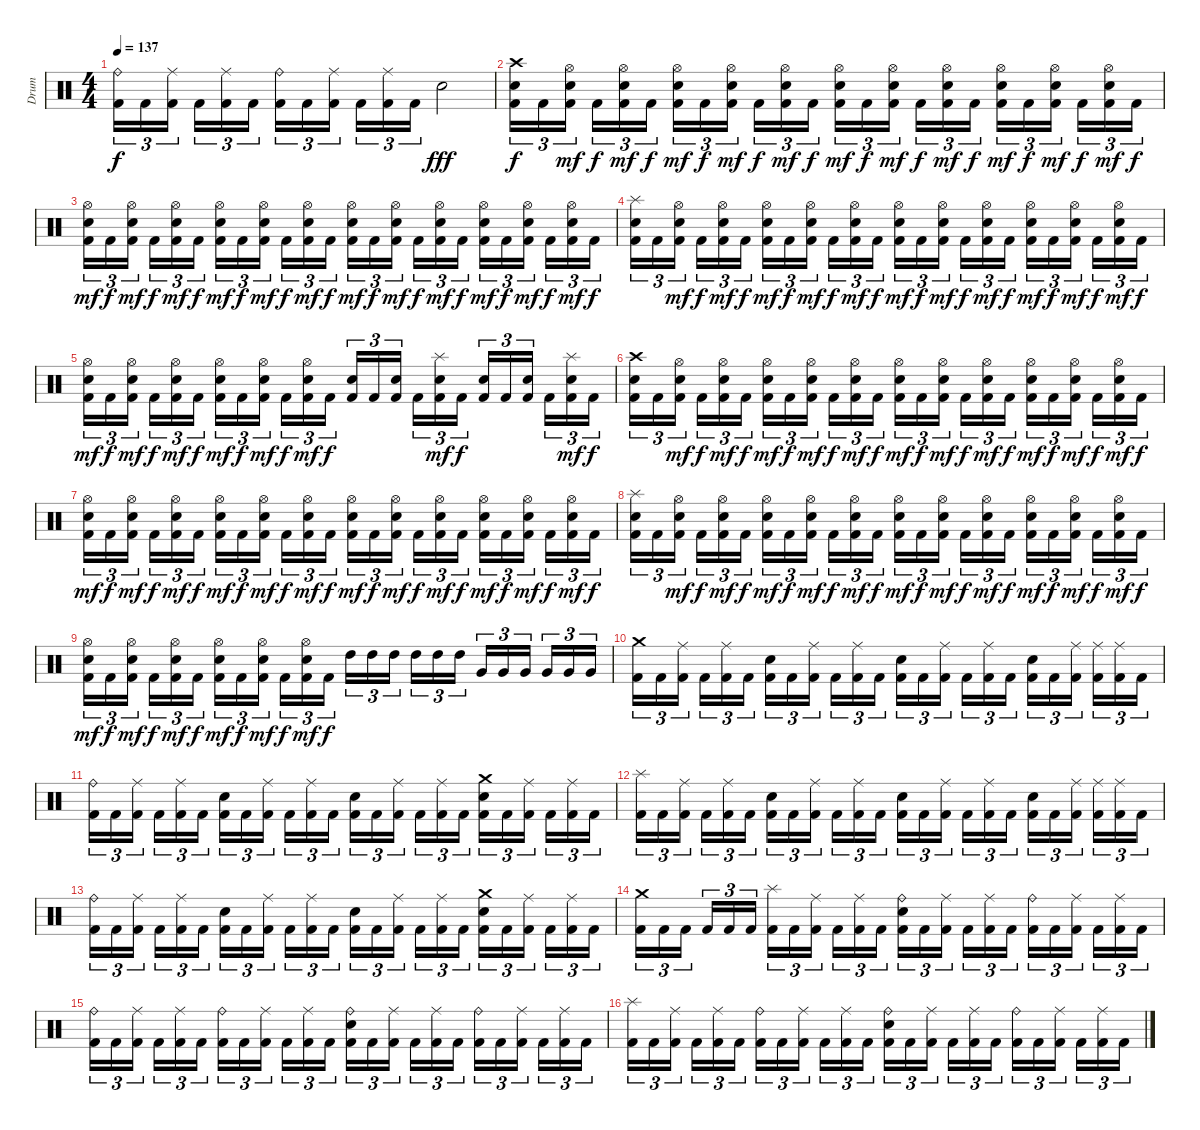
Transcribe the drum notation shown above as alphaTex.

\track ("Drum" "Drum") {instrument percussion}
\staff {score}
\articulation defaults
\ts (4 4)
\tempo 137
\clef neutral
\ks c
("Ride (bell)" "Kick (hit) 2").16{tu (3 2) dy f} "Kick (hit) 2".16{tu (3 2)} ("Ride (middle)" "Kick (hit) 2").16{tu (3 2) beam splitsecondary} "Kick (hit) 2".16{tu (3 2)} ("Ride (middle)" "Kick (hit) 2").16{tu (3 2)} "Kick (hit) 2".16{tu (3 2)} ("Ride (bell)" "Kick (hit) 2").16{tu (3 2)} "Kick (hit) 2".16{tu (3 2)} ("Ride (middle)" "Kick (hit) 2").16{tu (3 2) beam splitsecondary} "Kick (hit) 2".16{tu (3 2)} ("Ride (middle)" "Kick (hit) 2").16{tu (3 2)} "Kick (hit) 2".16{tu (3 2)} "Electric Snare (hit)".2{dy fff} |
("Crash high (hit)" "Electric Snare (hit)" "Kick (hit) 2").16{tu (3 2) dy f} "Kick (hit) 2".16{tu (3 2)} ("Hi-Hat (open)" "Electric Snare (hit)" "Kick (hit) 2").16{tu (3 2) dy mf beam splitsecondary} "Kick (hit) 2".16{tu (3 2) dy f} ("Hi-Hat (open)" "Electric Snare (hit)" "Kick (hit) 2").16{tu (3 2) dy mf} "Kick (hit) 2".16{tu (3 2) dy f} ("Hi-Hat (open)" "Electric Snare (hit)" "Kick (hit) 2").16{tu (3 2) dy mf} "Kick (hit) 2".16{tu (3 2) dy f} ("Hi-Hat (open)" "Electric Snare (hit)" "Kick (hit) 2").16{tu (3 2) dy mf beam splitsecondary} "Kick (hit) 2".16{tu (3 2) dy f} ("Hi-Hat (open)" "Electric Snare (hit)" "Kick (hit) 2").16{tu (3 2) dy mf} "Kick (hit) 2".16{tu (3 2) dy f} ("Hi-Hat (open)" "Electric Snare (hit)" "Kick (hit) 2").16{tu (3 2) dy mf} "Kick (hit) 2".16{tu (3 2) dy f} ("Hi-Hat (open)" "Electric Snare (hit)" "Kick (hit) 2").16{tu (3 2) dy mf beam splitsecondary} "Kick (hit) 2".16{tu (3 2) dy f} ("Hi-Hat (open)" "Electric Snare (hit)" "Kick (hit) 2").16{tu (3 2) dy mf} "Kick (hit) 2".16{tu (3 2) dy f} ("Hi-Hat (open)" "Electric Snare (hit)" "Kick (hit) 2").16{tu (3 2) dy mf} "Kick (hit) 2".16{tu (3 2) dy f} ("Hi-Hat (open)" "Electric Snare (hit)" "Kick (hit) 2").16{tu (3 2) dy mf beam splitsecondary} "Kick (hit) 2".16{tu (3 2) dy f} ("Hi-Hat (open)" "Electric Snare (hit)" "Kick (hit) 2").16{tu (3 2) dy mf} "Kick (hit) 2".16{tu (3 2) dy f} |
("Hi-Hat (open)" "Electric Snare (hit)" "Kick (hit) 2").16{tu (3 2) dy mf} "Kick (hit) 2".16{tu (3 2) dy f} ("Hi-Hat (open)" "Electric Snare (hit)" "Kick (hit) 2").16{tu (3 2) dy mf beam splitsecondary} "Kick (hit) 2".16{tu (3 2) dy f} ("Hi-Hat (open)" "Electric Snare (hit)" "Kick (hit) 2").16{tu (3 2) dy mf} "Kick (hit) 2".16{tu (3 2) dy f} ("Hi-Hat (open)" "Electric Snare (hit)" "Kick (hit) 2").16{tu (3 2) dy mf} "Kick (hit) 2".16{tu (3 2) dy f} ("Hi-Hat (open)" "Electric Snare (hit)" "Kick (hit) 2").16{tu (3 2) dy mf beam splitsecondary} "Kick (hit) 2".16{tu (3 2) dy f} ("Hi-Hat (open)" "Electric Snare (hit)" "Kick (hit) 2").16{tu (3 2) dy mf} "Kick (hit) 2".16{tu (3 2) dy f} ("Hi-Hat (open)" "Electric Snare (hit)" "Kick (hit) 2").16{tu (3 2) dy mf} "Kick (hit) 2".16{tu (3 2) dy f} ("Hi-Hat (open)" "Electric Snare (hit)" "Kick (hit) 2").16{tu (3 2) dy mf beam splitsecondary} "Kick (hit) 2".16{tu (3 2) dy f} ("Hi-Hat (open)" "Electric Snare (hit)" "Kick (hit) 2").16{tu (3 2) dy mf} "Kick (hit) 2".16{tu (3 2) dy f} ("Hi-Hat (open)" "Electric Snare (hit)" "Kick (hit) 2").16{tu (3 2) dy mf} "Kick (hit) 2".16{tu (3 2) dy f} ("Hi-Hat (open)" "Electric Snare (hit)" "Kick (hit) 2").16{tu (3 2) dy mf beam splitsecondary} "Kick (hit) 2".16{tu (3 2) dy f} ("Hi-Hat (open)" "Electric Snare (hit)" "Kick (hit) 2").16{tu (3 2) dy mf} "Kick (hit) 2".16{tu (3 2) dy f} |
("Splash (hit)" "Electric Snare (hit)" "Kick (hit) 2").16{tu (3 2)} "Kick (hit) 2".16{tu (3 2)} ("Hi-Hat (open)" "Electric Snare (hit)" "Kick (hit) 2").16{tu (3 2) dy mf beam splitsecondary} "Kick (hit) 2".16{tu (3 2) dy f} ("Hi-Hat (open)" "Electric Snare (hit)" "Kick (hit) 2").16{tu (3 2) dy mf} "Kick (hit) 2".16{tu (3 2) dy f} ("Hi-Hat (open)" "Electric Snare (hit)" "Kick (hit) 2").16{tu (3 2) dy mf} "Kick (hit) 2".16{tu (3 2) dy f} ("Hi-Hat (open)" "Electric Snare (hit)" "Kick (hit) 2").16{tu (3 2) dy mf beam splitsecondary} "Kick (hit) 2".16{tu (3 2) dy f} ("Hi-Hat (open)" "Electric Snare (hit)" "Kick (hit) 2").16{tu (3 2) dy mf} "Kick (hit) 2".16{tu (3 2) dy f} ("Hi-Hat (open)" "Electric Snare (hit)" "Kick (hit) 2").16{tu (3 2) dy mf} "Kick (hit) 2".16{tu (3 2) dy f} ("Hi-Hat (open)" "Electric Snare (hit)" "Kick (hit) 2").16{tu (3 2) dy mf beam splitsecondary} "Kick (hit) 2".16{tu (3 2) dy f} ("Hi-Hat (open)" "Electric Snare (hit)" "Kick (hit) 2").16{tu (3 2) dy mf} "Kick (hit) 2".16{tu (3 2) dy f} ("Hi-Hat (open)" "Electric Snare (hit)" "Kick (hit) 2").16{tu (3 2) dy mf} "Kick (hit) 2".16{tu (3 2) dy f} ("Hi-Hat (open)" "Electric Snare (hit)" "Kick (hit) 2").16{tu (3 2) dy mf beam splitsecondary} "Kick (hit) 2".16{tu (3 2) dy f} ("Hi-Hat (open)" "Electric Snare (hit)" "Kick (hit) 2").16{tu (3 2) dy mf} "Kick (hit) 2".16{tu (3 2) dy f} |
("Hi-Hat (open)" "Electric Snare (hit)" "Kick (hit) 2").16{tu (3 2) dy mf} "Kick (hit) 2".16{tu (3 2) dy f} ("Hi-Hat (open)" "Electric Snare (hit)" "Kick (hit) 2").16{tu (3 2) dy mf beam splitsecondary} "Kick (hit) 2".16{tu (3 2) dy f} ("Hi-Hat (open)" "Electric Snare (hit)" "Kick (hit) 2").16{tu (3 2) dy mf} "Kick (hit) 2".16{tu (3 2) dy f} ("Hi-Hat (open)" "Electric Snare (hit)" "Kick (hit) 2").16{tu (3 2) dy mf} "Kick (hit) 2".16{tu (3 2) dy f} ("Hi-Hat (open)" "Electric Snare (hit)" "Kick (hit) 2").16{tu (3 2) dy mf beam splitsecondary} "Kick (hit) 2".16{tu (3 2) dy f} ("Hi-Hat (open)" "Electric Snare (hit)" "Kick (hit) 2").16{tu (3 2) dy mf} "Kick (hit) 2".16{tu (3 2) dy f} ("Electric Snare (hit)" "Kick (hit) 2").16{tu (3 2)} "Kick (hit) 2".16{tu (3 2)} ("Electric Snare (hit)" "Kick (hit) 2").16{tu (3 2) beam splitsecondary} "Kick (hit) 2".16{tu (3 2)} ("Splash (hit)" "Electric Snare (hit)" "Kick (hit) 2").16{tu (3 2) dy mf} "Kick (hit) 2".16{tu (3 2) dy f} ("Electric Snare (hit)" "Kick (hit) 2").16{tu (3 2)} "Kick (hit) 2".16{tu (3 2)} ("Electric Snare (hit)" "Kick (hit) 2").16{tu (3 2) beam splitsecondary} "Kick (hit) 2".16{tu (3 2)} ("Splash (hit)" "Electric Snare (hit)" "Kick (hit) 2").16{tu (3 2) dy mf} "Kick (hit) 2".16{tu (3 2) dy f} |
("Crash high (hit)" "Electric Snare (hit)" "Kick (hit) 2").16{tu (3 2)} "Kick (hit) 2".16{tu (3 2)} ("Hi-Hat (open)" "Electric Snare (hit)" "Kick (hit) 2").16{tu (3 2) dy mf beam splitsecondary} "Kick (hit) 2".16{tu (3 2) dy f} ("Hi-Hat (open)" "Electric Snare (hit)" "Kick (hit) 2").16{tu (3 2) dy mf} "Kick (hit) 2".16{tu (3 2) dy f} ("Hi-Hat (open)" "Electric Snare (hit)" "Kick (hit) 2").16{tu (3 2) dy mf} "Kick (hit) 2".16{tu (3 2) dy f} ("Hi-Hat (open)" "Electric Snare (hit)" "Kick (hit) 2").16{tu (3 2) dy mf beam splitsecondary} "Kick (hit) 2".16{tu (3 2) dy f} ("Hi-Hat (open)" "Electric Snare (hit)" "Kick (hit) 2").16{tu (3 2) dy mf} "Kick (hit) 2".16{tu (3 2) dy f} ("Hi-Hat (open)" "Electric Snare (hit)" "Kick (hit) 2").16{tu (3 2) dy mf} "Kick (hit) 2".16{tu (3 2) dy f} ("Hi-Hat (open)" "Electric Snare (hit)" "Kick (hit) 2").16{tu (3 2) dy mf beam splitsecondary} "Kick (hit) 2".16{tu (3 2) dy f} ("Hi-Hat (open)" "Electric Snare (hit)" "Kick (hit) 2").16{tu (3 2) dy mf} "Kick (hit) 2".16{tu (3 2) dy f} ("Hi-Hat (open)" "Electric Snare (hit)" "Kick (hit) 2").16{tu (3 2) dy mf} "Kick (hit) 2".16{tu (3 2) dy f} ("Hi-Hat (open)" "Electric Snare (hit)" "Kick (hit) 2").16{tu (3 2) dy mf beam splitsecondary} "Kick (hit) 2".16{tu (3 2) dy f} ("Hi-Hat (open)" "Electric Snare (hit)" "Kick (hit) 2").16{tu (3 2) dy mf} "Kick (hit) 2".16{tu (3 2) dy f} |
("Hi-Hat (open)" "Electric Snare (hit)" "Kick (hit) 2").16{tu (3 2) dy mf} "Kick (hit) 2".16{tu (3 2) dy f} ("Hi-Hat (open)" "Electric Snare (hit)" "Kick (hit) 2").16{tu (3 2) dy mf beam splitsecondary} "Kick (hit) 2".16{tu (3 2) dy f} ("Hi-Hat (open)" "Electric Snare (hit)" "Kick (hit) 2").16{tu (3 2) dy mf} "Kick (hit) 2".16{tu (3 2) dy f} ("Hi-Hat (open)" "Electric Snare (hit)" "Kick (hit) 2").16{tu (3 2) dy mf} "Kick (hit) 2".16{tu (3 2) dy f} ("Hi-Hat (open)" "Electric Snare (hit)" "Kick (hit) 2").16{tu (3 2) dy mf beam splitsecondary} "Kick (hit) 2".16{tu (3 2) dy f} ("Hi-Hat (open)" "Electric Snare (hit)" "Kick (hit) 2").16{tu (3 2) dy mf} "Kick (hit) 2".16{tu (3 2) dy f} ("Hi-Hat (open)" "Electric Snare (hit)" "Kick (hit) 2").16{tu (3 2) dy mf} "Kick (hit) 2".16{tu (3 2) dy f} ("Hi-Hat (open)" "Electric Snare (hit)" "Kick (hit) 2").16{tu (3 2) dy mf beam splitsecondary} "Kick (hit) 2".16{tu (3 2) dy f} ("Hi-Hat (open)" "Electric Snare (hit)" "Kick (hit) 2").16{tu (3 2) dy mf} "Kick (hit) 2".16{tu (3 2) dy f} ("Hi-Hat (open)" "Electric Snare (hit)" "Kick (hit) 2").16{tu (3 2) dy mf} "Kick (hit) 2".16{tu (3 2) dy f} ("Hi-Hat (open)" "Electric Snare (hit)" "Kick (hit) 2").16{tu (3 2) dy mf beam splitsecondary} "Kick (hit) 2".16{tu (3 2) dy f} ("Hi-Hat (open)" "Electric Snare (hit)" "Kick (hit) 2").16{tu (3 2) dy mf} "Kick (hit) 2".16{tu (3 2) dy f} |
("Splash (hit)" "Electric Snare (hit)" "Kick (hit) 2").16{tu (3 2)} "Kick (hit) 2".16{tu (3 2)} ("Hi-Hat (open)" "Electric Snare (hit)" "Kick (hit) 2").16{tu (3 2) dy mf beam splitsecondary} "Kick (hit) 2".16{tu (3 2) dy f} ("Hi-Hat (open)" "Electric Snare (hit)" "Kick (hit) 2").16{tu (3 2) dy mf} "Kick (hit) 2".16{tu (3 2) dy f} ("Hi-Hat (open)" "Electric Snare (hit)" "Kick (hit) 2").16{tu (3 2) dy mf} "Kick (hit) 2".16{tu (3 2) dy f} ("Hi-Hat (open)" "Electric Snare (hit)" "Kick (hit) 2").16{tu (3 2) dy mf beam splitsecondary} "Kick (hit) 2".16{tu (3 2) dy f} ("Hi-Hat (open)" "Electric Snare (hit)" "Kick (hit) 2").16{tu (3 2) dy mf} "Kick (hit) 2".16{tu (3 2) dy f} ("Hi-Hat (open)" "Electric Snare (hit)" "Kick (hit) 2").16{tu (3 2) dy mf} "Kick (hit) 2".16{tu (3 2) dy f} ("Hi-Hat (open)" "Electric Snare (hit)" "Kick (hit) 2").16{tu (3 2) dy mf beam splitsecondary} "Kick (hit) 2".16{tu (3 2) dy f} ("Hi-Hat (open)" "Electric Snare (hit)" "Kick (hit) 2").16{tu (3 2) dy mf} "Kick (hit) 2".16{tu (3 2) dy f} ("Hi-Hat (open)" "Electric Snare (hit)" "Kick (hit) 2").16{tu (3 2) dy mf} "Kick (hit) 2".16{tu (3 2) dy f} ("Hi-Hat (open)" "Electric Snare (hit)" "Kick (hit) 2").16{tu (3 2) dy mf beam splitsecondary} "Kick (hit) 2".16{tu (3 2) dy f} ("Hi-Hat (open)" "Electric Snare (hit)" "Kick (hit) 2").16{tu (3 2) dy mf} "Kick (hit) 2".16{tu (3 2) dy f} |
("Hi-Hat (open)" "Electric Snare (hit)" "Kick (hit) 2").16{tu (3 2) dy mf} "Kick (hit) 2".16{tu (3 2) dy f} ("Hi-Hat (open)" "Electric Snare (hit)" "Kick (hit) 2").16{tu (3 2) dy mf beam splitsecondary} "Kick (hit) 2".16{tu (3 2) dy f} ("Hi-Hat (open)" "Electric Snare (hit)" "Kick (hit) 2").16{tu (3 2) dy mf} "Kick (hit) 2".16{tu (3 2) dy f} ("Hi-Hat (open)" "Electric Snare (hit)" "Kick (hit) 2").16{tu (3 2) dy mf} "Kick (hit) 2".16{tu (3 2) dy f} ("Hi-Hat (open)" "Electric Snare (hit)" "Kick (hit) 2").16{tu (3 2) dy mf beam splitsecondary} "Kick (hit) 2".16{tu (3 2) dy f} ("Hi-Hat (open)" "Electric Snare (hit)" "Kick (hit) 2").16{tu (3 2) dy mf} "Kick (hit) 2".16{tu (3 2) dy f} "High Tom (hit)".16{tu (3 2)} "High Tom (hit)".16{tu (3 2)} "High Tom (hit)".16{tu (3 2) beam splitsecondary} "High Tom (hit)".16{tu (3 2)} "High Tom (hit)".16{tu (3 2)} "High Tom (hit)".16{tu (3 2)} "Very Low Tom (hit)".16{tu (3 2)} "Very Low Tom (hit)".16{tu (3 2)} "Very Low Tom (hit)".16{tu (3 2) beam splitsecondary} "Very Low Tom (hit)".16{tu (3 2)} "Very Low Tom (hit)".16{tu (3 2)} "Very Low Tom (hit)".16{tu (3 2)} |
("Crash medium (hit)" "Kick (hit) 2").16{tu (3 2)} "Kick (hit) 2".16{tu (3 2)} ("Ride (middle)" "Kick (hit) 2").16{tu (3 2) beam splitsecondary} "Kick (hit) 2".16{tu (3 2)} ("Ride (middle)" "Kick (hit) 2").16{tu (3 2)} "Kick (hit) 2".16{tu (3 2)} ("Electric Snare (hit)" "Kick (hit) 2").16{tu (3 2)} "Kick (hit) 2".16{tu (3 2)} ("Ride (middle)" "Kick (hit) 2").16{tu (3 2) beam splitsecondary} "Kick (hit) 2".16{tu (3 2)} ("Ride (middle)" "Kick (hit) 2").16{tu (3 2)} "Kick (hit) 2".16{tu (3 2)} ("Electric Snare (hit)" "Kick (hit) 2").16{tu (3 2)} "Kick (hit) 2".16{tu (3 2)} ("Ride (middle)" "Kick (hit) 2").16{tu (3 2) beam splitsecondary} "Kick (hit) 2".16{tu (3 2)} ("Ride (middle)" "Kick (hit) 2").16{tu (3 2)} "Kick (hit) 2".16{tu (3 2)} ("Electric Snare (hit)" "Kick (hit) 2").16{tu (3 2)} "Kick (hit) 2".16{tu (3 2)} ("Ride (middle)" "Kick (hit) 2").16{tu (3 2) beam splitsecondary} ("Ride (middle)" "Kick (hit) 2").16{tu (3 2)} ("Ride (middle)" "Kick (hit) 2").16{tu (3 2)} "Kick (hit) 2".16{tu (3 2)} |
("Ride (bell)" "Kick (hit) 2").16{tu (3 2)} "Kick (hit) 2".16{tu (3 2)} ("Ride (middle)" "Kick (hit) 2").16{tu (3 2) beam splitsecondary} "Kick (hit) 2".16{tu (3 2)} ("Ride (middle)" "Kick (hit) 2").16{tu (3 2)} "Kick (hit) 2".16{tu (3 2)} ("Electric Snare (hit)" "Kick (hit) 2").16{tu (3 2)} "Kick (hit) 2".16{tu (3 2)} ("Ride (middle)" "Kick (hit) 2").16{tu (3 2) beam splitsecondary} "Kick (hit) 2".16{tu (3 2)} ("Ride (middle)" "Kick (hit) 2").16{tu (3 2)} "Kick (hit) 2".16{tu (3 2)} ("Electric Snare (hit)" "Kick (hit) 2").16{tu (3 2)} "Kick (hit) 2".16{tu (3 2)} ("Ride (middle)" "Kick (hit) 2").16{tu (3 2) beam splitsecondary} "Kick (hit) 2".16{tu (3 2)} ("Ride (middle)" "Kick (hit) 2").16{tu (3 2)} "Kick (hit) 2".16{tu (3 2)} ("Crash medium (hit)" "Electric Snare (hit)" "Kick (hit) 2").16{tu (3 2)} "Kick (hit) 2".16{tu (3 2)} ("Ride (middle)" "Kick (hit) 2").16{tu (3 2) beam splitsecondary} "Kick (hit) 2".16{tu (3 2)} ("Ride (middle)" "Kick (hit) 2").16{tu (3 2)} "Kick (hit) 2".16{tu (3 2)} |
("Splash (hit)" "Kick (hit) 2").16{tu (3 2)} "Kick (hit) 2".16{tu (3 2)} ("Ride (middle)" "Kick (hit) 2").16{tu (3 2) beam splitsecondary} "Kick (hit) 2".16{tu (3 2)} ("Ride (middle)" "Kick (hit) 2").16{tu (3 2)} "Kick (hit) 2".16{tu (3 2)} ("Electric Snare (hit)" "Kick (hit) 2").16{tu (3 2)} "Kick (hit) 2".16{tu (3 2)} ("Ride (middle)" "Kick (hit) 2").16{tu (3 2) beam splitsecondary} "Kick (hit) 2".16{tu (3 2)} ("Ride (middle)" "Kick (hit) 2").16{tu (3 2)} "Kick (hit) 2".16{tu (3 2)} ("Electric Snare (hit)" "Kick (hit) 2").16{tu (3 2)} "Kick (hit) 2".16{tu (3 2)} ("Ride (middle)" "Kick (hit) 2").16{tu (3 2) beam splitsecondary} "Kick (hit) 2".16{tu (3 2)} ("Ride (middle)" "Kick (hit) 2").16{tu (3 2)} "Kick (hit) 2".16{tu (3 2)} ("Electric Snare (hit)" "Kick (hit) 2").16{tu (3 2)} "Kick (hit) 2".16{tu (3 2)} ("Ride (middle)" "Kick (hit) 2").16{tu (3 2) beam splitsecondary} ("Ride (middle)" "Kick (hit) 2").16{tu (3 2)} ("Ride (middle)" "Kick (hit) 2").16{tu (3 2)} "Kick (hit) 2".16{tu (3 2)} |
("Ride (bell)" "Kick (hit) 2").16{tu (3 2)} "Kick (hit) 2".16{tu (3 2)} ("Ride (middle)" "Kick (hit) 2").16{tu (3 2) beam splitsecondary} "Kick (hit) 2".16{tu (3 2)} ("Ride (middle)" "Kick (hit) 2").16{tu (3 2)} "Kick (hit) 2".16{tu (3 2)} ("Electric Snare (hit)" "Kick (hit) 2").16{tu (3 2)} "Kick (hit) 2".16{tu (3 2)} ("Ride (middle)" "Kick (hit) 2").16{tu (3 2) beam splitsecondary} "Kick (hit) 2".16{tu (3 2)} ("Ride (middle)" "Kick (hit) 2").16{tu (3 2)} "Kick (hit) 2".16{tu (3 2)} ("Electric Snare (hit)" "Kick (hit) 2").16{tu (3 2)} "Kick (hit) 2".16{tu (3 2)} ("Ride (middle)" "Kick (hit) 2").16{tu (3 2) beam splitsecondary} "Kick (hit) 2".16{tu (3 2)} ("Ride (middle)" "Kick (hit) 2").16{tu (3 2)} "Kick (hit) 2".16{tu (3 2)} ("Crash medium (hit)" "Electric Snare (hit)" "Kick (hit) 2").16{tu (3 2)} "Kick (hit) 2".16{tu (3 2)} ("Ride (middle)" "Kick (hit) 2").16{tu (3 2) beam splitsecondary} "Kick (hit) 2".16{tu (3 2)} ("Ride (middle)" "Kick (hit) 2").16{tu (3 2)} "Kick (hit) 2".16{tu (3 2)} |
("Crash medium (hit)" "Kick (hit) 2").16{tu (3 2)} "Kick (hit) 2".16{tu (3 2)} "Kick (hit) 2".16{tu (3 2) beam splitsecondary} "Kick (hit) 2".16{tu (3 2)} "Kick (hit) 2".16{tu (3 2)} "Kick (hit) 2".16{tu (3 2)} ("Splash (hit)" "Kick (hit) 2").16{tu (3 2)} "Kick (hit) 2".16{tu (3 2)} ("Ride (middle)" "Kick (hit) 2").16{tu (3 2) beam splitsecondary} "Kick (hit) 2".16{tu (3 2)} ("Ride (middle)" "Kick (hit) 2").16{tu (3 2)} "Kick (hit) 2".16{tu (3 2)} ("Ride (bell)" "Electric Snare (hit)" "Kick (hit) 2").16{tu (3 2)} "Kick (hit) 2".16{tu (3 2)} ("Ride (middle)" "Kick (hit) 2").16{tu (3 2) beam splitsecondary} "Kick (hit) 2".16{tu (3 2)} ("Ride (middle)" "Kick (hit) 2").16{tu (3 2)} "Kick (hit) 2".16{tu (3 2)} ("Ride (bell)" "Kick (hit) 2").16{tu (3 2)} "Kick (hit) 2".16{tu (3 2)} ("Ride (middle)" "Kick (hit) 2").16{tu (3 2) beam splitsecondary} "Kick (hit) 2".16{tu (3 2)} ("Ride (middle)" "Kick (hit) 2").16{tu (3 2)} "Kick (hit) 2".16{tu (3 2)} |
("Ride (bell)" "Kick (hit) 2").16{tu (3 2)} "Kick (hit) 2".16{tu (3 2)} ("Ride (middle)" "Kick (hit) 2").16{tu (3 2) beam splitsecondary} "Kick (hit) 2".16{tu (3 2)} ("Ride (middle)" "Kick (hit) 2").16{tu (3 2)} "Kick (hit) 2".16{tu (3 2)} ("Ride (bell)" "Kick (hit) 2").16{tu (3 2)} "Kick (hit) 2".16{tu (3 2)} ("Ride (middle)" "Kick (hit) 2").16{tu (3 2) beam splitsecondary} "Kick (hit) 2".16{tu (3 2)} ("Ride (middle)" "Kick (hit) 2").16{tu (3 2)} "Kick (hit) 2".16{tu (3 2)} ("Ride (bell)" "Electric Snare (hit)" "Kick (hit) 2").16{tu (3 2)} "Kick (hit) 2".16{tu (3 2)} ("Ride (middle)" "Kick (hit) 2").16{tu (3 2) beam splitsecondary} "Kick (hit) 2".16{tu (3 2)} ("Ride (middle)" "Kick (hit) 2").16{tu (3 2)} "Kick (hit) 2".16{tu (3 2)} ("Ride (bell)" "Kick (hit) 2").16{tu (3 2)} "Kick (hit) 2".16{tu (3 2)} ("Ride (middle)" "Kick (hit) 2").16{tu (3 2) beam splitsecondary} "Kick (hit) 2".16{tu (3 2)} ("Ride (middle)" "Kick (hit) 2").16{tu (3 2)} "Kick (hit) 2".16{tu (3 2)} |
("Splash (hit)" "Kick (hit) 2").16{tu (3 2)} "Kick (hit) 2".16{tu (3 2)} ("Ride (middle)" "Kick (hit) 2").16{tu (3 2) beam splitsecondary} "Kick (hit) 2".16{tu (3 2)} ("Ride (middle)" "Kick (hit) 2").16{tu (3 2)} "Kick (hit) 2".16{tu (3 2)} ("Ride (bell)" "Kick (hit) 2").16{tu (3 2)} "Kick (hit) 2".16{tu (3 2)} ("Ride (middle)" "Kick (hit) 2").16{tu (3 2) beam splitsecondary} "Kick (hit) 2".16{tu (3 2)} ("Ride (middle)" "Kick (hit) 2").16{tu (3 2)} "Kick (hit) 2".16{tu (3 2)} ("Ride (bell)" "Electric Snare (hit)" "Kick (hit) 2").16{tu (3 2)} "Kick (hit) 2".16{tu (3 2)} ("Ride (middle)" "Kick (hit) 2").16{tu (3 2) beam splitsecondary} "Kick (hit) 2".16{tu (3 2)} ("Ride (middle)" "Kick (hit) 2").16{tu (3 2)} "Kick (hit) 2".16{tu (3 2)} ("Ride (bell)" "Kick (hit) 2").16{tu (3 2)} "Kick (hit) 2".16{tu (3 2)} ("Ride (middle)" "Kick (hit) 2").16{tu (3 2) beam splitsecondary} "Kick (hit) 2".16{tu (3 2)} ("Ride (middle)" "Kick (hit) 2").16{tu (3 2)} "Kick (hit) 2".16{tu (3 2)}
